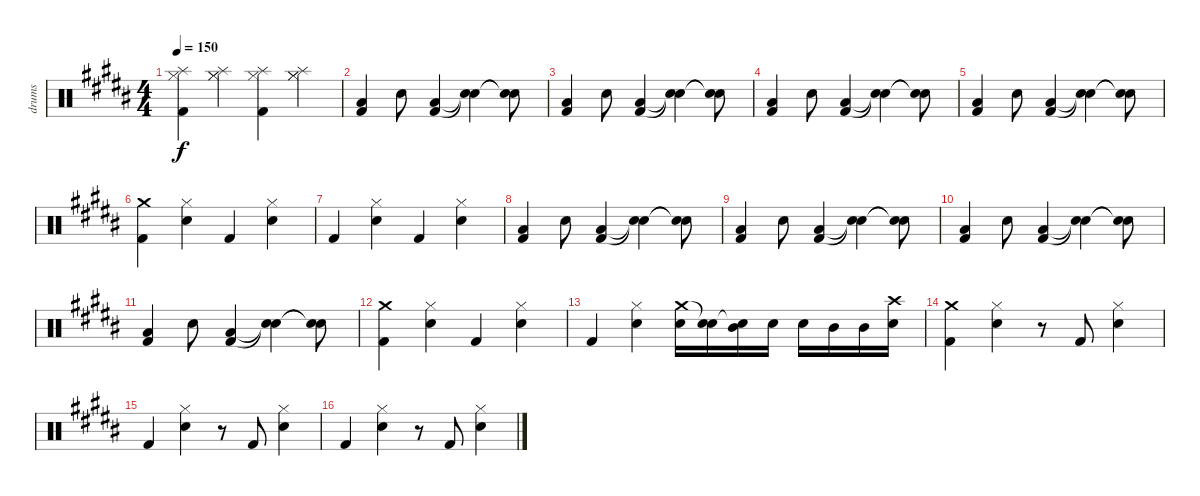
\track ("drums" "drums") {instrument percussion}
\staff {score}
\articulation defaults
\ts (4 4)
\tempo 150
\clef neutral
\ks b
("Kick (hit) 2" "Splash (hit)" "Hi-Hat (closed)").4{dy f} ("Hi-Hat (closed)" "Splash (hit)" "Hi-Hat (closed)").4 ("Kick (hit) 2" "Splash (hit)" "Hi-Hat (closed)").4 ("Hi-Hat (closed)" "Splash (hit)" "Hi-Hat (closed)").4 |
("Kick (hit) 2" "Low Tom (hit)").4 "Electric Snare (hit)".8 ("Kick (hit) 2" "Low Tom (hit)").4 ("Snare (hit)"{t} "Snare (hit)"{t}).4 ("Snare (hit)"{t} "Snare (hit)"{t}).8 |
("Kick (hit) 2" "Low Tom (hit)").4 "Electric Snare (hit)".8 ("Kick (hit) 2" "Low Tom (hit)").4 ("Snare (hit)"{t} "Snare (hit)"{t}).4 ("Snare (hit)"{t} "Snare (hit)"{t}).8 |
("Kick (hit) 2" "Low Tom (hit)").4 "Electric Snare (hit)".8 ("Kick (hit) 2" "Low Tom (hit)").4 ("Snare (hit)"{t} "Snare (hit)"{t}).4 ("Snare (hit)"{t} "Snare (hit)"{t}).8 |
("Kick (hit) 2" "Low Tom (hit)").4 "Electric Snare (hit)".8 ("Kick (hit) 2" "Low Tom (hit)").4 ("Snare (hit)"{t} "Snare (hit)"{t}).4 ("Snare (hit)"{t} "Snare (hit)"{t}).8 |
("Kick (hit) 2" "Crash medium (hit)").4 ("Hi-Hat (closed)" "Electric Snare (hit)").4 "Kick (hit) 2".4 ("Hi-Hat (closed)" "Electric Snare (hit)").4 |
"Kick (hit) 2".4 ("Hi-Hat (closed)" "Electric Snare (hit)").4 "Kick (hit) 2".4 ("Hi-Hat (closed)" "Electric Snare (hit)").4 |
("Kick (hit) 2" "Low Tom (hit)").4 "Electric Snare (hit)".8 ("Kick (hit) 2" "Low Tom (hit)").4 ("Snare (hit)"{t} "Snare (hit)"{t}).4 ("Snare (hit)"{t} "Snare (hit)"{t}).8 |
("Kick (hit) 2" "Low Tom (hit)").4 "Electric Snare (hit)".8 ("Kick (hit) 2" "Low Tom (hit)").4 ("Snare (hit)"{t} "Snare (hit)"{t}).4 ("Snare (hit)"{t} "Snare (hit)"{t}).8 |
("Kick (hit) 2" "Low Tom (hit)").4 "Electric Snare (hit)".8 ("Kick (hit) 2" "Low Tom (hit)").4 ("Snare (hit)"{t} "Snare (hit)"{t}).4 ("Snare (hit)"{t} "Snare (hit)"{t}).8 |
("Kick (hit) 2" "Low Tom (hit)").4 "Electric Snare (hit)".8 ("Kick (hit) 2" "Low Tom (hit)").4 ("Snare (hit)"{t} "Snare (hit)"{t}).4 ("Snare (hit)"{t} "Snare (hit)"{t}).8 |
("Kick (hit) 2" "Crash medium (hit)").4 ("Hi-Hat (closed)" "Electric Snare (hit)").4 "Kick (hit) 2".4 ("Hi-Hat (closed)" "Electric Snare (hit)").4 |
"Kick (hit) 2".4 ("Hi-Hat (closed)" "Electric Snare (hit)").4 ("Electric Snare (hit)" "Crash medium (hit)").16 ("Electric Snare (hit)" "Snare (hit)"{t}).16 ("Mid Tom (hit)" "Snare (hit)"{t}).16 "Electric Snare (hit)".16 "Electric Snare (hit)".16 "Mid Tom (hit)".16 "Mid Tom (hit)".16 ("Electric Snare (hit)" "Crash high (hit)").16 |
("Kick (hit) 2" "Crash medium (hit)").4 ("Hi-Hat (closed)" "Electric Snare (hit)").4 r.8 "Kick (hit) 2".8 ("Hi-Hat (closed)" "Electric Snare (hit)").4 |
"Kick (hit) 2".4 ("Hi-Hat (closed)" "Electric Snare (hit)").4 r.8 "Kick (hit) 2".8 ("Hi-Hat (closed)" "Electric Snare (hit)").4 |
"Kick (hit) 2".4 ("Hi-Hat (closed)" "Electric Snare (hit)").4 r.8 "Kick (hit) 2".8 ("Hi-Hat (closed)" "Electric Snare (hit)").4
